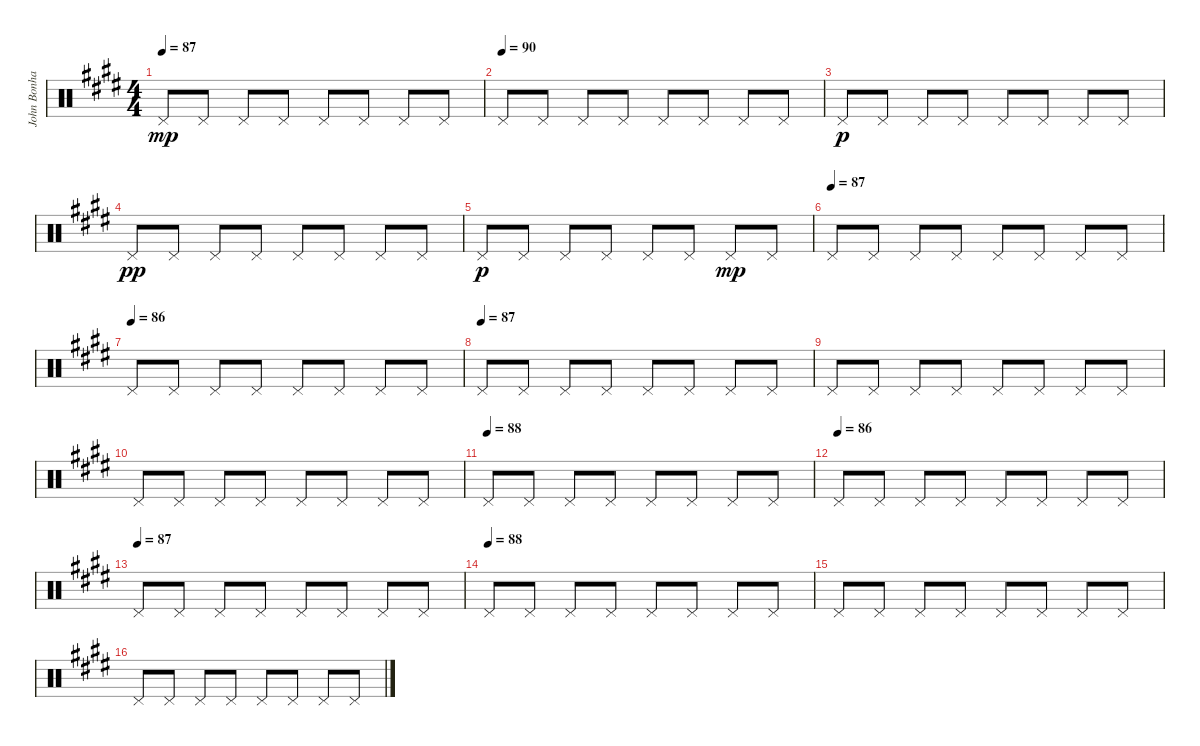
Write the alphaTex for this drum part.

\track ("John Bonham Drums" "John Bonha") {instrument percussion}
\staff {score}
\articulation defaults
\ts (4 4)
\tempo 87
\clef neutral
\ks e "Pedal Hi-Hat (hit)".8{dy mp} "Pedal Hi-Hat (hit)".8 "Pedal Hi-Hat (hit)".8 "Pedal Hi-Hat (hit)".8 "Pedal Hi-Hat (hit)".8 "Pedal Hi-Hat (hit)".8 "Pedal Hi-Hat (hit)".8 "Pedal Hi-Hat (hit)".8
|
\tempo (90)
"Pedal Hi-Hat (hit)".8 "Pedal Hi-Hat (hit)".8 "Pedal Hi-Hat (hit)".8 "Pedal Hi-Hat (hit)".8 "Pedal Hi-Hat (hit)".8 "Pedal Hi-Hat (hit)".8 "Pedal Hi-Hat (hit)".8 "Pedal Hi-Hat (hit)".8 |
"Pedal Hi-Hat (hit)".8{dy p} "Pedal Hi-Hat (hit)".8 "Pedal Hi-Hat (hit)".8 "Pedal Hi-Hat (hit)".8 "Pedal Hi-Hat (hit)".8 "Pedal Hi-Hat (hit)".8 "Pedal Hi-Hat (hit)".8 "Pedal Hi-Hat (hit)".8 |
"Pedal Hi-Hat (hit)".8{dy pp} "Pedal Hi-Hat (hit)".8 "Pedal Hi-Hat (hit)".8 "Pedal Hi-Hat (hit)".8 "Pedal Hi-Hat (hit)".8 "Pedal Hi-Hat (hit)".8 "Pedal Hi-Hat (hit)".8 "Pedal Hi-Hat (hit)".8 |
"Pedal Hi-Hat (hit)".8{dy p} "Pedal Hi-Hat (hit)".8 "Pedal Hi-Hat (hit)".8 "Pedal Hi-Hat (hit)".8 "Pedal Hi-Hat (hit)".8 "Pedal Hi-Hat (hit)".8 "Pedal Hi-Hat (hit)".8{dy mp} "Pedal Hi-Hat (hit)".8 |
\tempo (87)
"Pedal Hi-Hat (hit)".8 "Pedal Hi-Hat (hit)".8 "Pedal Hi-Hat (hit)".8 "Pedal Hi-Hat (hit)".8 "Pedal Hi-Hat (hit)".8 "Pedal Hi-Hat (hit)".8 "Pedal Hi-Hat (hit)".8 "Pedal Hi-Hat (hit)".8 |
\tempo (86)
"Pedal Hi-Hat (hit)".8 "Pedal Hi-Hat (hit)".8 "Pedal Hi-Hat (hit)".8 "Pedal Hi-Hat (hit)".8 "Pedal Hi-Hat (hit)".8 "Pedal Hi-Hat (hit)".8 "Pedal Hi-Hat (hit)".8 "Pedal Hi-Hat (hit)".8 |
\tempo (87)
"Pedal Hi-Hat (hit)".8 "Pedal Hi-Hat (hit)".8 "Pedal Hi-Hat (hit)".8 "Pedal Hi-Hat (hit)".8 "Pedal Hi-Hat (hit)".8 "Pedal Hi-Hat (hit)".8 "Pedal Hi-Hat (hit)".8 "Pedal Hi-Hat (hit)".8 |
"Pedal Hi-Hat (hit)".8 "Pedal Hi-Hat (hit)".8 "Pedal Hi-Hat (hit)".8 "Pedal Hi-Hat (hit)".8 "Pedal Hi-Hat (hit)".8 "Pedal Hi-Hat (hit)".8 "Pedal Hi-Hat (hit)".8 "Pedal Hi-Hat (hit)".8 |
"Pedal Hi-Hat (hit)".8 "Pedal Hi-Hat (hit)".8 "Pedal Hi-Hat (hit)".8 "Pedal Hi-Hat (hit)".8 "Pedal Hi-Hat (hit)".8 "Pedal Hi-Hat (hit)".8 "Pedal Hi-Hat (hit)".8 "Pedal Hi-Hat (hit)".8 |
\tempo (88)
"Pedal Hi-Hat (hit)".8 "Pedal Hi-Hat (hit)".8 "Pedal Hi-Hat (hit)".8 "Pedal Hi-Hat (hit)".8 "Pedal Hi-Hat (hit)".8 "Pedal Hi-Hat (hit)".8 "Pedal Hi-Hat (hit)".8 "Pedal Hi-Hat (hit)".8 |
\tempo (86)
"Pedal Hi-Hat (hit)".8 "Pedal Hi-Hat (hit)".8 "Pedal Hi-Hat (hit)".8 "Pedal Hi-Hat (hit)".8 "Pedal Hi-Hat (hit)".8 "Pedal Hi-Hat (hit)".8 "Pedal Hi-Hat (hit)".8 "Pedal Hi-Hat (hit)".8 |
\tempo (87)
"Pedal Hi-Hat (hit)".8 "Pedal Hi-Hat (hit)".8 "Pedal Hi-Hat (hit)".8 "Pedal Hi-Hat (hit)".8 "Pedal Hi-Hat (hit)".8 "Pedal Hi-Hat (hit)".8 "Pedal Hi-Hat (hit)".8 "Pedal Hi-Hat (hit)".8 |
\tempo (88)
"Pedal Hi-Hat (hit)".8 "Pedal Hi-Hat (hit)".8 "Pedal Hi-Hat (hit)".8 "Pedal Hi-Hat (hit)".8 "Pedal Hi-Hat (hit)".8 "Pedal Hi-Hat (hit)".8 "Pedal Hi-Hat (hit)".8 "Pedal Hi-Hat (hit)".8 |
"Pedal Hi-Hat (hit)".8 "Pedal Hi-Hat (hit)".8 "Pedal Hi-Hat (hit)".8 "Pedal Hi-Hat (hit)".8 "Pedal Hi-Hat (hit)".8 "Pedal Hi-Hat (hit)".8 "Pedal Hi-Hat (hit)".8 "Pedal Hi-Hat (hit)".8 |
"Pedal Hi-Hat (hit)".8 "Pedal Hi-Hat (hit)".8 "Pedal Hi-Hat (hit)".8 "Pedal Hi-Hat (hit)".8 "Pedal Hi-Hat (hit)".8 "Pedal Hi-Hat (hit)".8 "Pedal Hi-Hat (hit)".8 "Pedal Hi-Hat (hit)".8
